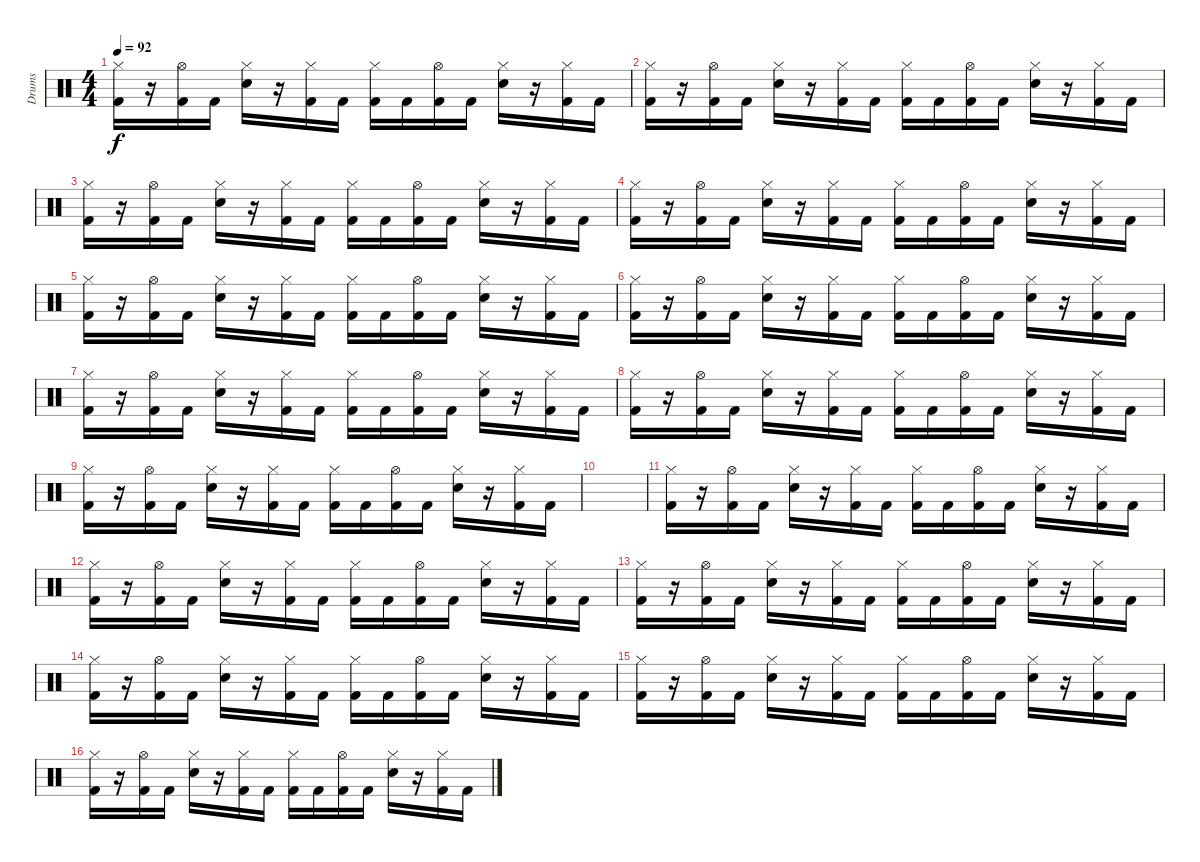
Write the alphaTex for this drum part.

\track ("Drums" "Drums") {instrument percussion}
\staff {score}
\articulation defaults
\ts (4 4)
\tempo 92
\clef neutral
\ks c
("Hi-Hat (closed)" "Kick (hit) 2").16{dy f} r.16 ("Hi-Hat (open)" "Kick (hit) 2").16 "Kick (hit) 2".16 ("Hi-Hat (closed)" "Snare (hit) 2").16 r.16 ("Hi-Hat (closed)" "Kick (hit) 2").16 "Kick (hit) 2".16 ("Hi-Hat (closed)" "Kick (hit) 2").16 "Kick (hit) 2".16 ("Hi-Hat (open)" "Kick (hit) 2").16 "Kick (hit) 2".16 ("Hi-Hat (closed)" "Snare (hit) 2").16 r.16 ("Hi-Hat (closed)" "Kick (hit) 2").16 "Kick (hit) 2".16 |
("Hi-Hat (closed)" "Kick (hit) 2").16 r.16 ("Hi-Hat (open)" "Kick (hit) 2").16 "Kick (hit) 2".16 ("Hi-Hat (closed)" "Snare (hit) 2").16 r.16 ("Hi-Hat (closed)" "Kick (hit) 2").16 "Kick (hit) 2".16 ("Hi-Hat (closed)" "Kick (hit) 2").16 "Kick (hit) 2".16 ("Hi-Hat (open)" "Kick (hit) 2").16 "Kick (hit) 2".16 ("Hi-Hat (closed)" "Snare (hit) 2").16 r.16 ("Hi-Hat (closed)" "Kick (hit) 2").16 "Kick (hit) 2".16 |
("Hi-Hat (closed)" "Kick (hit) 2").16 r.16 ("Hi-Hat (open)" "Kick (hit) 2").16 "Kick (hit) 2".16 ("Hi-Hat (closed)" "Snare (hit) 2").16 r.16 ("Hi-Hat (closed)" "Kick (hit) 2").16 "Kick (hit) 2".16 ("Hi-Hat (closed)" "Kick (hit) 2").16 "Kick (hit) 2".16 ("Hi-Hat (open)" "Kick (hit) 2").16 "Kick (hit) 2".16 ("Hi-Hat (closed)" "Snare (hit) 2").16 r.16 ("Hi-Hat (closed)" "Kick (hit) 2").16 "Kick (hit) 2".16 |
("Hi-Hat (closed)" "Kick (hit) 2").16 r.16 ("Hi-Hat (open)" "Kick (hit) 2").16 "Kick (hit) 2".16 ("Hi-Hat (closed)" "Snare (hit) 2").16 r.16 ("Hi-Hat (closed)" "Kick (hit) 2").16 "Kick (hit) 2".16 ("Hi-Hat (closed)" "Kick (hit) 2").16 "Kick (hit) 2".16 ("Hi-Hat (open)" "Kick (hit) 2").16 "Kick (hit) 2".16 ("Hi-Hat (closed)" "Snare (hit) 2").16 r.16 ("Hi-Hat (closed)" "Kick (hit) 2").16 "Kick (hit) 2".16 |
("Hi-Hat (closed)" "Kick (hit) 2").16 r.16 ("Hi-Hat (open)" "Kick (hit) 2").16 "Kick (hit) 2".16 ("Hi-Hat (closed)" "Snare (hit) 2").16 r.16 ("Hi-Hat (closed)" "Kick (hit) 2").16 "Kick (hit) 2".16 ("Hi-Hat (closed)" "Kick (hit) 2").16 "Kick (hit) 2".16 ("Hi-Hat (open)" "Kick (hit) 2").16 "Kick (hit) 2".16 ("Hi-Hat (closed)" "Snare (hit) 2").16 r.16 ("Hi-Hat (closed)" "Kick (hit) 2").16 "Kick (hit) 2".16 |
("Hi-Hat (closed)" "Kick (hit) 2").16 r.16 ("Hi-Hat (open)" "Kick (hit) 2").16 "Kick (hit) 2".16 ("Hi-Hat (closed)" "Snare (hit) 2").16 r.16 ("Hi-Hat (closed)" "Kick (hit) 2").16 "Kick (hit) 2".16 ("Hi-Hat (closed)" "Kick (hit) 2").16 "Kick (hit) 2".16 ("Hi-Hat (open)" "Kick (hit) 2").16 "Kick (hit) 2".16 ("Hi-Hat (closed)" "Snare (hit) 2").16 r.16 ("Hi-Hat (closed)" "Kick (hit) 2").16 "Kick (hit) 2".16 |
("Hi-Hat (closed)" "Kick (hit) 2").16 r.16 ("Hi-Hat (open)" "Kick (hit) 2").16 "Kick (hit) 2".16 ("Hi-Hat (closed)" "Snare (hit) 2").16 r.16 ("Hi-Hat (closed)" "Kick (hit) 2").16 "Kick (hit) 2".16 ("Hi-Hat (closed)" "Kick (hit) 2").16 "Kick (hit) 2".16 ("Hi-Hat (open)" "Kick (hit) 2").16 "Kick (hit) 2".16 ("Hi-Hat (closed)" "Snare (hit) 2").16 r.16 ("Hi-Hat (closed)" "Kick (hit) 2").16 "Kick (hit) 2".16 |
("Hi-Hat (closed)" "Kick (hit) 2").16 r.16 ("Hi-Hat (open)" "Kick (hit) 2").16 "Kick (hit) 2".16 ("Hi-Hat (closed)" "Snare (hit) 2").16 r.16 ("Hi-Hat (closed)" "Kick (hit) 2").16 "Kick (hit) 2".16 ("Hi-Hat (closed)" "Kick (hit) 2").16 "Kick (hit) 2".16 ("Hi-Hat (open)" "Kick (hit) 2").16 "Kick (hit) 2".16 ("Hi-Hat (closed)" "Snare (hit) 2").16 r.16 ("Hi-Hat (closed)" "Kick (hit) 2").16 "Kick (hit) 2".16 |
("Hi-Hat (closed)" "Kick (hit) 2").16 r.16 ("Hi-Hat (open)" "Kick (hit) 2").16 "Kick (hit) 2".16 ("Hi-Hat (closed)" "Snare (hit) 2").16 r.16 ("Hi-Hat (closed)" "Kick (hit) 2").16 "Kick (hit) 2".16 ("Hi-Hat (closed)" "Kick (hit) 2").16 "Kick (hit) 2".16 ("Hi-Hat (open)" "Kick (hit) 2").16 "Kick (hit) 2".16 ("Hi-Hat (closed)" "Snare (hit) 2").16 r.16 ("Hi-Hat (closed)" "Kick (hit) 2").16 "Kick (hit) 2".16 |
|
("Hi-Hat (closed)" "Kick (hit) 2").16 r.16 ("Hi-Hat (open)" "Kick (hit) 2").16 "Kick (hit) 2".16 ("Hi-Hat (closed)" "Snare (hit) 2").16 r.16 ("Hi-Hat (closed)" "Kick (hit) 2").16 "Kick (hit) 2".16 ("Hi-Hat (closed)" "Kick (hit) 2").16 "Kick (hit) 2".16 ("Hi-Hat (open)" "Kick (hit) 2").16 "Kick (hit) 2".16 ("Hi-Hat (closed)" "Snare (hit) 2").16 r.16 ("Hi-Hat (closed)" "Kick (hit) 2").16 "Kick (hit) 2".16 |
("Hi-Hat (closed)" "Kick (hit) 2").16 r.16 ("Hi-Hat (open)" "Kick (hit) 2").16 "Kick (hit) 2".16 ("Hi-Hat (closed)" "Snare (hit) 2").16 r.16 ("Hi-Hat (closed)" "Kick (hit) 2").16 "Kick (hit) 2".16 ("Hi-Hat (closed)" "Kick (hit) 2").16 "Kick (hit) 2".16 ("Hi-Hat (open)" "Kick (hit) 2").16 "Kick (hit) 2".16 ("Hi-Hat (closed)" "Snare (hit) 2").16 r.16 ("Hi-Hat (closed)" "Kick (hit) 2").16 "Kick (hit) 2".16 |
("Hi-Hat (closed)" "Kick (hit) 2").16 r.16 ("Hi-Hat (open)" "Kick (hit) 2").16 "Kick (hit) 2".16 ("Hi-Hat (closed)" "Snare (hit) 2").16 r.16 ("Hi-Hat (closed)" "Kick (hit) 2").16 "Kick (hit) 2".16 ("Hi-Hat (closed)" "Kick (hit) 2").16 "Kick (hit) 2".16 ("Hi-Hat (open)" "Kick (hit) 2").16 "Kick (hit) 2".16 ("Hi-Hat (closed)" "Snare (hit) 2").16 r.16 ("Hi-Hat (closed)" "Kick (hit) 2").16 "Kick (hit) 2".16 |
("Hi-Hat (closed)" "Kick (hit) 2").16 r.16 ("Hi-Hat (open)" "Kick (hit) 2").16 "Kick (hit) 2".16 ("Hi-Hat (closed)" "Snare (hit) 2").16 r.16 ("Hi-Hat (closed)" "Kick (hit) 2").16 "Kick (hit) 2".16 ("Hi-Hat (closed)" "Kick (hit) 2").16 "Kick (hit) 2".16 ("Hi-Hat (open)" "Kick (hit) 2").16 "Kick (hit) 2".16 ("Hi-Hat (closed)" "Snare (hit) 2").16 r.16 ("Hi-Hat (closed)" "Kick (hit) 2").16 "Kick (hit) 2".16 |
("Hi-Hat (closed)" "Kick (hit) 2").16 r.16 ("Hi-Hat (open)" "Kick (hit) 2").16 "Kick (hit) 2".16 ("Hi-Hat (closed)" "Snare (hit) 2").16 r.16 ("Hi-Hat (closed)" "Kick (hit) 2").16 "Kick (hit) 2".16 ("Hi-Hat (closed)" "Kick (hit) 2").16 "Kick (hit) 2".16 ("Hi-Hat (open)" "Kick (hit) 2").16 "Kick (hit) 2".16 ("Hi-Hat (closed)" "Snare (hit) 2").16 r.16 ("Hi-Hat (closed)" "Kick (hit) 2").16 "Kick (hit) 2".16 |
("Hi-Hat (closed)" "Kick (hit) 2").16 r.16 ("Hi-Hat (open)" "Kick (hit) 2").16 "Kick (hit) 2".16 ("Hi-Hat (closed)" "Snare (hit) 2").16 r.16 ("Hi-Hat (closed)" "Kick (hit) 2").16 "Kick (hit) 2".16 ("Hi-Hat (closed)" "Kick (hit) 2").16 "Kick (hit) 2".16 ("Hi-Hat (open)" "Kick (hit) 2").16 "Kick (hit) 2".16 ("Hi-Hat (closed)" "Snare (hit) 2").16 r.16 ("Hi-Hat (closed)" "Kick (hit) 2").16 "Kick (hit) 2".16
